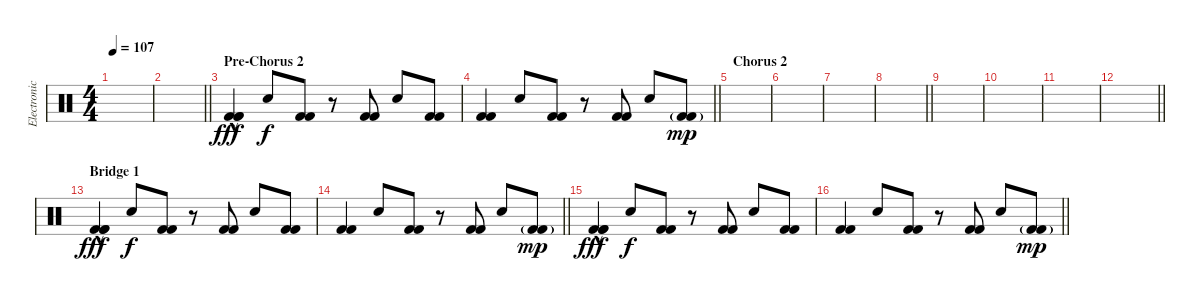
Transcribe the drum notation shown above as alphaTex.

\track ("Electronic Drums" "Electronic") {instrument percussion}
\staff {score}
\articulation defaults
\ts (4 4)
\tempo 107
\clef neutral
\ks c
|
\barLineRight lightlight
|
\section ("" "Pre-Chorus 2")
("Kick (hit) 2"{hac} "Kick (hit) 2"{hac} "Kick (hit) 2"{hac}).4{dy fff} "Hand Clap (hit)".8{dy f} ("Kick (hit) 2" "Kick (hit) 2").8 r.8 ("Kick (hit) 2" "Kick (hit) 2").8 "Hand Clap (hit)".8 ("Kick (hit) 2" "Kick (hit) 2").8 |
\barLineRight lightlight
("Kick (hit) 2" "Kick (hit) 2").4 "Hand Clap (hit)".8 ("Kick (hit) 2" "Kick (hit) 2").8 r.8 ("Kick (hit) 2" "Kick (hit) 2").8 "Hand Clap (hit)".8 ("Kick (hit) 2"{g} "Kick (hit) 2"{g}).8{dy mp} |
\section ("" "Chorus 2")
|
|
|
\barLineRight lightlight
|
|
|
|
\barLineRight lightlight
|
\section ("" "Bridge 1")
("Kick (hit) 2"{hac} "Kick (hit) 2"{hac} "Kick (hit) 2"{hac}).4{dy fff} "Hand Clap (hit)".8{dy f} ("Kick (hit) 2" "Kick (hit) 2").8 r.8 ("Kick (hit) 2" "Kick (hit) 2").8 "Hand Clap (hit)".8 ("Kick (hit) 2" "Kick (hit) 2").8 |
\barLineRight lightlight
("Kick (hit) 2" "Kick (hit) 2").4 "Hand Clap (hit)".8 ("Kick (hit) 2" "Kick (hit) 2").8 r.8 ("Kick (hit) 2" "Kick (hit) 2").8 "Hand Clap (hit)".8 ("Kick (hit) 2"{g} "Kick (hit) 2"{g}).8{dy mp} |
("Kick (hit) 2"{hac} "Kick (hit) 2"{hac} "Kick (hit) 2"{hac}).4{dy fff} "Hand Clap (hit)".8{dy f} ("Kick (hit) 2" "Kick (hit) 2").8 r.8 ("Kick (hit) 2" "Kick (hit) 2").8 "Hand Clap (hit)".8 ("Kick (hit) 2" "Kick (hit) 2").8 |
\barLineRight lightlight
("Kick (hit) 2" "Kick (hit) 2").4 "Hand Clap (hit)".8 ("Kick (hit) 2" "Kick (hit) 2").8 r.8 ("Kick (hit) 2" "Kick (hit) 2").8 "Hand Clap (hit)".8 ("Kick (hit) 2"{g} "Kick (hit) 2"{g}).8{dy mp}
